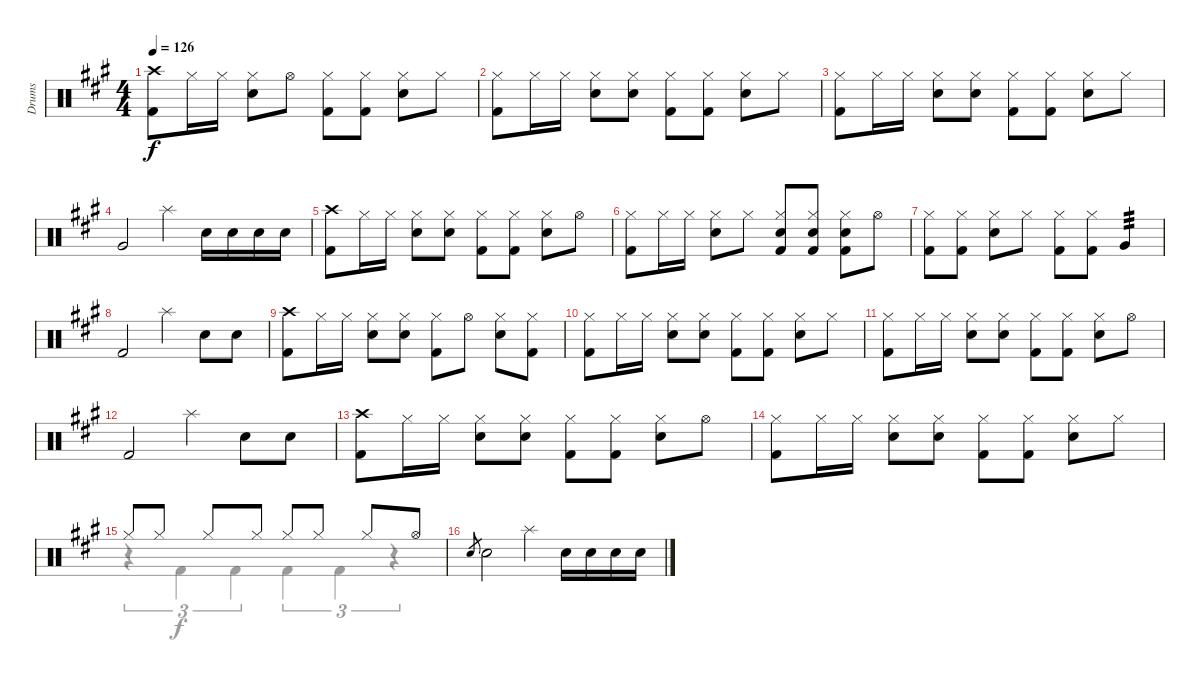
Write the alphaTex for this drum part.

\track ("Drums" "Drums") {instrument percussion}
\staff {score}
\articulation defaults
\voice
\ts (4 4)
\tempo 126
\clef neutral
\ks a
("Crash high (hit)" "Kick (hit) 2").8{dy f} "Hi-Hat (closed)".16 "Hi-Hat (closed)".16 ("Hi-Hat (closed)" "Snare (hit) 2").8 "Hi-Hat (open)".8 ("Hi-Hat (closed)" "Kick (hit) 2").8 ("Hi-Hat (closed)" "Kick (hit) 2").8 ("Hi-Hat (closed)" "Snare (hit) 2").8 "Hi-Hat (closed)".8 |
("Hi-Hat (closed)" "Kick (hit) 2").8 "Hi-Hat (closed)".16 "Hi-Hat (closed)".16 ("Hi-Hat (closed)" "Snare (hit) 2").8 ("Hi-Hat (closed)" "Snare (hit) 2").8 ("Hi-Hat (closed)" "Kick (hit) 2").8 ("Hi-Hat (closed)" "Kick (hit) 2").8 ("Hi-Hat (closed)" "Snare (hit) 2").8 "Hi-Hat (closed)".8 |
("Hi-Hat (closed)" "Kick (hit) 2").8 "Hi-Hat (closed)".16 "Hi-Hat (closed)".16 ("Hi-Hat (closed)" "Snare (hit) 2").8 ("Hi-Hat (closed)" "Snare (hit) 2").8 ("Hi-Hat (closed)" "Kick (hit) 2").8 ("Hi-Hat (closed)" "Kick (hit) 2").8 ("Hi-Hat (closed)" "Snare (hit) 2").8 "Hi-Hat (closed)".8 |
"Very Low Tom (hit)".2 "Splash (hit)".4 "Snare (hit) 2".16 "Snare (hit) 2".16 "Snare (hit) 2".16 "Snare (hit) 2".16 |
("Crash high (hit)" "Kick (hit) 2").8 "Hi-Hat (closed)".16 "Hi-Hat (closed)".16 ("Hi-Hat (closed)" "Snare (hit) 2").8 ("Hi-Hat (closed)" "Snare (hit) 2").8 ("Hi-Hat (closed)" "Kick (hit) 2").8 ("Hi-Hat (closed)" "Kick (hit) 2").8 ("Hi-Hat (closed)" "Snare (hit) 2").8 "Hi-Hat (open)".8 |
("Hi-Hat (closed)" "Kick (hit) 2").8 "Hi-Hat (closed)".16 "Hi-Hat (closed)".16 ("Hi-Hat (closed)" "Snare (hit) 2").8 "Hi-Hat (closed)".8 ("Hi-Hat (closed)" "Snare (hit) 2" "Kick (hit) 2").8 ("Hi-Hat (closed)" "Snare (hit) 2" "Kick (hit) 2").8 ("Hi-Hat (closed)" "Snare (hit) 2" "Kick (hit) 2").8 "Hi-Hat (open)".8 |
("Hi-Hat (closed)" "Kick (hit) 2").8 ("Hi-Hat (closed)" "Kick (hit) 2").8 ("Hi-Hat (closed)" "Snare (hit) 2").8 "Hi-Hat (closed)".8 ("Hi-Hat (closed)" "Kick (hit) 2").8 ("Hi-Hat (closed)" "Kick (hit) 2").8 "Very Low Tom (hit)".4{tp 3} |
"Kick (hit) 2".2 "Splash (hit)".4 "Snare (hit) 2".8 "Snare (hit) 2".8 |
("Crash high (hit)" "Kick (hit) 2").8 "Hi-Hat (closed)".16 "Hi-Hat (closed)".16 ("Hi-Hat (closed)" "Snare (hit) 2").8 ("Hi-Hat (closed)" "Snare (hit) 2").8 ("Hi-Hat (closed)" "Kick (hit) 2").8 "Hi-Hat (open)".8 ("Hi-Hat (closed)" "Snare (hit) 2").8 ("Hi-Hat (closed)" "Kick (hit) 2").8 |
("Hi-Hat (closed)" "Kick (hit) 2").8 "Hi-Hat (closed)".16 "Hi-Hat (closed)".16 ("Hi-Hat (closed)" "Snare (hit) 2").8 ("Hi-Hat (closed)" "Snare (hit) 2").8 ("Hi-Hat (closed)" "Kick (hit) 2").8 ("Hi-Hat (closed)" "Kick (hit) 2").8 ("Hi-Hat (closed)" "Snare (hit) 2").8 "Hi-Hat (closed)".8 |
("Hi-Hat (closed)" "Kick (hit) 2").8 "Hi-Hat (closed)".16 "Hi-Hat (closed)".16 ("Hi-Hat (closed)" "Snare (hit) 2").8 ("Hi-Hat (closed)" "Snare (hit) 2").8 ("Hi-Hat (closed)" "Kick (hit) 2").8 ("Hi-Hat (closed)" "Kick (hit) 2").8 ("Hi-Hat (closed)" "Snare (hit) 2").8 "Hi-Hat (open)".8 |
"Kick (hit) 2".2 "Splash (hit)".4 "Snare (hit) 2".8 "Snare (hit) 2".8 |
("Crash high (hit)" "Kick (hit) 2").8 "Hi-Hat (closed)".16 "Hi-Hat (closed)".16 ("Hi-Hat (closed)" "Snare (hit) 2").8 ("Hi-Hat (closed)" "Snare (hit) 2").8 ("Hi-Hat (closed)" "Kick (hit) 2").8 ("Hi-Hat (closed)" "Kick (hit) 2").8 ("Hi-Hat (closed)" "Snare (hit) 2").8 "Hi-Hat (open)".8 |
("Hi-Hat (closed)" "Kick (hit) 2").8 "Hi-Hat (closed)".16 "Hi-Hat (closed)".16 ("Hi-Hat (closed)" "Snare (hit) 2").8 ("Hi-Hat (closed)" "Snare (hit) 2").8 ("Hi-Hat (closed)" "Kick (hit) 2").8 ("Hi-Hat (closed)" "Kick (hit) 2").8 ("Hi-Hat (closed)" "Snare (hit) 2").8 "Hi-Hat (closed)".8 |
"Hi-Hat (closed)".8 "Hi-Hat (closed)".8 "Hi-Hat (closed)".8 "Hi-Hat (closed)".8 "Hi-Hat (closed)".8 "Hi-Hat (closed)".8 "Hi-Hat (closed)".8 "Hi-Hat (open)".8 |
"Snare (hit) 2".8{gr} "Snare (hit) 2".2 "Splash (hit)".4 "Snare (hit) 2".16 "Snare (hit) 2".16 "Snare (hit) 2".16 "Snare (hit) 2".16
\voice
\clef neutral
\ottava regular
\simile none
\ks a
|
|
|
|
|
|
|
|
|
|
|
|
|
|
r.4{tu (3 2)} "Kick (hit) 2".4{tu (3 2) dy f} "Kick (hit) 2".4{tu (3 2)} "Kick (hit) 2".4{tu (3 2)} "Kick (hit) 2".4{tu (3 2)} r.4{tu (3 2)} |
